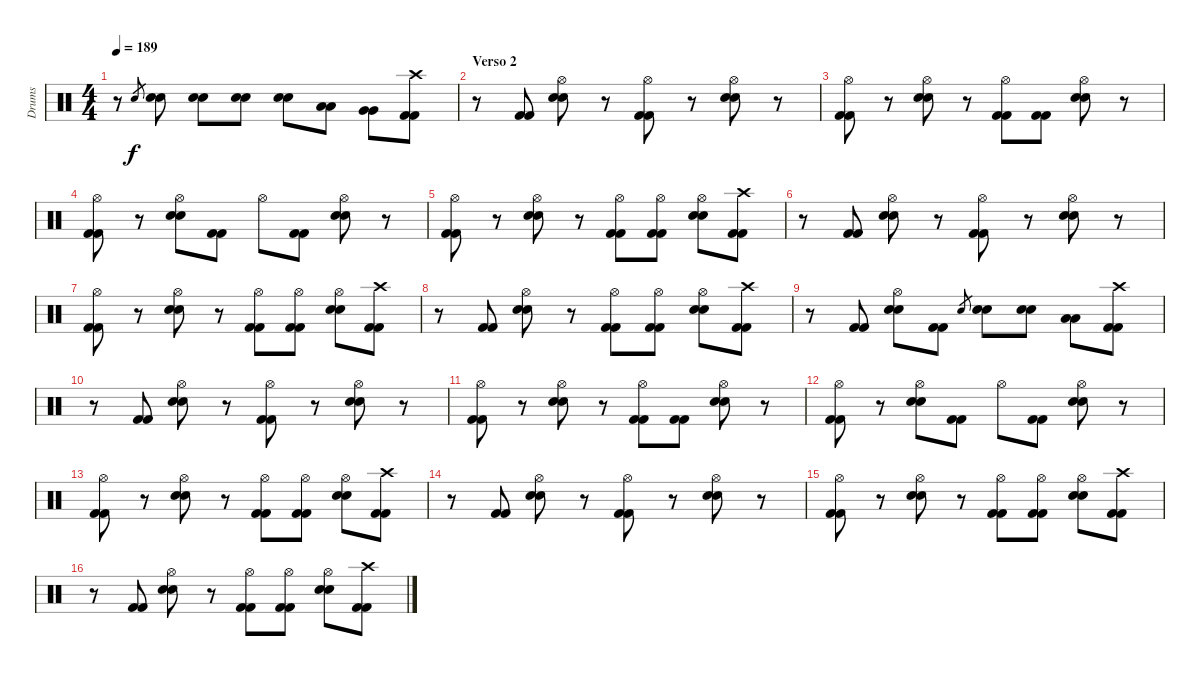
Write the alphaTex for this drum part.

\track ("Drums" "Drums") {instrument percussion}
\staff {score}
\articulation defaults
\ts (4 4)
\tempo 189
\clef neutral
\ks c
r.8{dy f} "Snare (hit) 2".8{gr} ("Snare (hit) 2" "Snare (hit) 2").8 ("Snare (hit) 2" "Snare (hit) 2").8 ("Snare (hit) 2" "Snare (hit) 2").8 ("Snare (hit) 2" "Snare (hit) 2").8 ("Low Tom (hit)" "Low Tom (hit)").8 ("Very Low Tom (hit)" "Very Low Tom (hit)").8 ("Crash high (hit)" "Kick (hit) 2" "Kick (hit) 2").8 |
\section ("" "Verso 2")
r.8 ("Kick (hit) 2" "Kick (hit) 2").8 ("Hi-Hat (open)" "Snare (hit) 2" "Snare (hit) 2").8 r.8 ("Hi-Hat (open)" "Kick (hit) 2" "Kick (hit) 2").8 r.8 ("Hi-Hat (open)" "Snare (hit) 2" "Snare (hit) 2").8 r.8 |
("Hi-Hat (open)" "Kick (hit) 2" "Kick (hit) 2").8 r.8 ("Hi-Hat (open)" "Snare (hit) 2" "Snare (hit) 2").8 r.8 ("Hi-Hat (open)" "Kick (hit) 2" "Kick (hit) 2").8 ("Kick (hit) 2" "Kick (hit) 2").8 ("Hi-Hat (open)" "Snare (hit) 2" "Snare (hit) 2").8 r.8 |
("Hi-Hat (open)" "Kick (hit) 2" "Kick (hit) 2").8 r.8 ("Hi-Hat (open)" "Snare (hit) 2" "Snare (hit) 2").8 ("Kick (hit) 2" "Kick (hit) 2").8 "Hi-Hat (open)".8 ("Kick (hit) 2" "Kick (hit) 2").8 ("Hi-Hat (open)" "Snare (hit) 2" "Snare (hit) 2").8 r.8 |
("Hi-Hat (open)" "Kick (hit) 2" "Kick (hit) 2").8 r.8 ("Hi-Hat (open)" "Snare (hit) 2" "Snare (hit) 2").8 r.8 ("Hi-Hat (open)" "Kick (hit) 2" "Kick (hit) 2").8 ("Hi-Hat (open)" "Kick (hit) 2" "Kick (hit) 2").8 ("Hi-Hat (open)" "Snare (hit) 2" "Snare (hit) 2").8 ("Crash high (hit)" "Kick (hit) 2" "Kick (hit) 2").8 |
r.8 ("Kick (hit) 2" "Kick (hit) 2").8 ("Hi-Hat (open)" "Snare (hit) 2" "Snare (hit) 2").8 r.8 ("Hi-Hat (open)" "Kick (hit) 2" "Kick (hit) 2").8 r.8 ("Hi-Hat (open)" "Snare (hit) 2" "Snare (hit) 2").8 r.8 |
("Hi-Hat (open)" "Kick (hit) 2" "Kick (hit) 2").8 r.8 ("Hi-Hat (open)" "Snare (hit) 2" "Snare (hit) 2").8 r.8 ("Hi-Hat (open)" "Kick (hit) 2" "Kick (hit) 2").8 ("Hi-Hat (open)" "Kick (hit) 2" "Kick (hit) 2").8 ("Hi-Hat (open)" "Snare (hit) 2" "Snare (hit) 2").8 ("Crash high (hit)" "Kick (hit) 2" "Kick (hit) 2").8 |
r.8 ("Kick (hit) 2" "Kick (hit) 2").8 ("Hi-Hat (open)" "Snare (hit) 2" "Snare (hit) 2").8 r.8 ("Hi-Hat (open)" "Kick (hit) 2" "Kick (hit) 2").8 ("Hi-Hat (open)" "Kick (hit) 2" "Kick (hit) 2").8 ("Hi-Hat (open)" "Snare (hit) 2" "Snare (hit) 2").8 ("Crash high (hit)" "Kick (hit) 2" "Kick (hit) 2").8 |
r.8 ("Kick (hit) 2" "Kick (hit) 2").8 ("Hi-Hat (open)" "Snare (hit) 2" "Snare (hit) 2").8 ("Kick (hit) 2" "Kick (hit) 2").8 "Snare (hit) 2".8{gr} ("Snare (hit) 2" "Snare (hit) 2").8 ("Snare (hit) 2" "Snare (hit) 2").8 ("Low Tom (hit)" "Low Tom (hit)").8 ("Crash high (hit)" "Kick (hit) 2" "Kick (hit) 2").8 |
r.8 ("Kick (hit) 2" "Kick (hit) 2").8 ("Hi-Hat (open)" "Snare (hit) 2" "Snare (hit) 2").8 r.8 ("Hi-Hat (open)" "Kick (hit) 2" "Kick (hit) 2").8 r.8 ("Hi-Hat (open)" "Snare (hit) 2" "Snare (hit) 2").8 r.8 |
("Hi-Hat (open)" "Kick (hit) 2" "Kick (hit) 2").8 r.8 ("Hi-Hat (open)" "Snare (hit) 2" "Snare (hit) 2").8 r.8 ("Hi-Hat (open)" "Kick (hit) 2" "Kick (hit) 2").8 ("Kick (hit) 2" "Kick (hit) 2").8 ("Hi-Hat (open)" "Snare (hit) 2" "Snare (hit) 2").8 r.8 |
("Hi-Hat (open)" "Kick (hit) 2" "Kick (hit) 2").8 r.8 ("Hi-Hat (open)" "Snare (hit) 2" "Snare (hit) 2").8 ("Kick (hit) 2" "Kick (hit) 2").8 "Hi-Hat (open)".8 ("Kick (hit) 2" "Kick (hit) 2").8 ("Hi-Hat (open)" "Snare (hit) 2" "Snare (hit) 2").8 r.8 |
("Hi-Hat (open)" "Kick (hit) 2" "Kick (hit) 2").8 r.8 ("Hi-Hat (open)" "Snare (hit) 2" "Snare (hit) 2").8 r.8 ("Hi-Hat (open)" "Kick (hit) 2" "Kick (hit) 2").8 ("Hi-Hat (open)" "Kick (hit) 2" "Kick (hit) 2").8 ("Hi-Hat (open)" "Snare (hit) 2" "Snare (hit) 2").8 ("Crash high (hit)" "Kick (hit) 2" "Kick (hit) 2").8 |
r.8 ("Kick (hit) 2" "Kick (hit) 2").8 ("Hi-Hat (open)" "Snare (hit) 2" "Snare (hit) 2").8 r.8 ("Hi-Hat (open)" "Kick (hit) 2" "Kick (hit) 2").8 r.8 ("Hi-Hat (open)" "Snare (hit) 2" "Snare (hit) 2").8 r.8 |
("Hi-Hat (open)" "Kick (hit) 2" "Kick (hit) 2").8 r.8 ("Hi-Hat (open)" "Snare (hit) 2" "Snare (hit) 2").8 r.8 ("Hi-Hat (open)" "Kick (hit) 2" "Kick (hit) 2").8 ("Hi-Hat (open)" "Kick (hit) 2" "Kick (hit) 2").8 ("Hi-Hat (open)" "Snare (hit) 2" "Snare (hit) 2").8 ("Crash high (hit)" "Kick (hit) 2" "Kick (hit) 2").8 |
r.8 ("Kick (hit) 2" "Kick (hit) 2").8 ("Hi-Hat (open)" "Snare (hit) 2" "Snare (hit) 2").8 r.8 ("Hi-Hat (open)" "Kick (hit) 2" "Kick (hit) 2").8 ("Hi-Hat (open)" "Kick (hit) 2" "Kick (hit) 2").8 ("Hi-Hat (open)" "Snare (hit) 2" "Snare (hit) 2").8 ("Crash high (hit)" "Kick (hit) 2" "Kick (hit) 2").8
